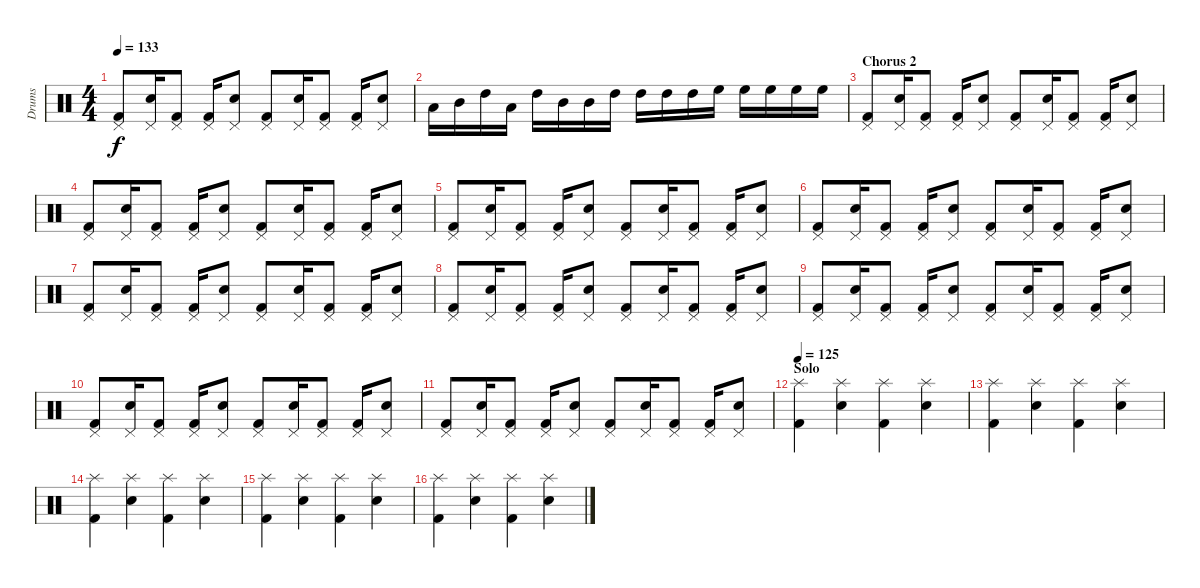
\track ("Drums" "Drums") {instrument percussion}
\staff {score}
\articulation defaults
\ts (4 4)
\tempo 133
\clef neutral
\ks c
("Pedal Hi-Hat (hit)" "Kick (hit) 2").8{dy f} ("Pedal Hi-Hat (hit)" "Electric Snare (hit)").16 ("Pedal Hi-Hat (hit)" "Kick (hit) 2").8 ("Pedal Hi-Hat (hit)" "Kick (hit) 2").16 ("Pedal Hi-Hat (hit)" "Electric Snare (hit)").8 ("Pedal Hi-Hat (hit)" "Kick (hit) 2").8 ("Pedal Hi-Hat (hit)" "Electric Snare (hit)").16 ("Pedal Hi-Hat (hit)" "Kick (hit) 2").8 ("Pedal Hi-Hat (hit)" "Kick (hit) 2").16 ("Pedal Hi-Hat (hit)" "Electric Snare (hit)").8 |
"Low Tom (hit)".16 "Mid Tom (hit)".16 "High Tom (hit)".16 "Low Tom (hit)".16 "High Tom (hit)".16 "Mid Tom (hit)".16 "Mid Tom (hit)".16 "High Tom (hit)".16 "High Tom (hit)".16 "High Tom (hit)".16 "High Tom (hit)".16 "High Floor Tom (hit)".16 "High Floor Tom (hit)".16 "High Floor Tom (hit)".16 "High Floor Tom (hit)".16 "High Floor Tom (hit)".16 |
\section ("" "Chorus 2 ")
("Pedal Hi-Hat (hit)" "Kick (hit) 2").8 ("Pedal Hi-Hat (hit)" "Electric Snare (hit)").16 ("Pedal Hi-Hat (hit)" "Kick (hit) 2").8 ("Pedal Hi-Hat (hit)" "Kick (hit) 2").16 ("Pedal Hi-Hat (hit)" "Electric Snare (hit)").8 ("Pedal Hi-Hat (hit)" "Kick (hit) 2").8 ("Pedal Hi-Hat (hit)" "Electric Snare (hit)").16 ("Pedal Hi-Hat (hit)" "Kick (hit) 2").8 ("Pedal Hi-Hat (hit)" "Kick (hit) 2").16 ("Pedal Hi-Hat (hit)" "Electric Snare (hit)").8 |
("Pedal Hi-Hat (hit)" "Kick (hit) 2").8 ("Pedal Hi-Hat (hit)" "Electric Snare (hit)").16 ("Pedal Hi-Hat (hit)" "Kick (hit) 2").8 ("Pedal Hi-Hat (hit)" "Kick (hit) 2").16 ("Pedal Hi-Hat (hit)" "Electric Snare (hit)").8 ("Pedal Hi-Hat (hit)" "Kick (hit) 2").8 ("Pedal Hi-Hat (hit)" "Electric Snare (hit)").16 ("Pedal Hi-Hat (hit)" "Kick (hit) 2").8 ("Pedal Hi-Hat (hit)" "Kick (hit) 2").16 ("Pedal Hi-Hat (hit)" "Electric Snare (hit)").8 |
("Pedal Hi-Hat (hit)" "Kick (hit) 2").8 ("Pedal Hi-Hat (hit)" "Electric Snare (hit)").16 ("Pedal Hi-Hat (hit)" "Kick (hit) 2").8 ("Pedal Hi-Hat (hit)" "Kick (hit) 2").16 ("Pedal Hi-Hat (hit)" "Electric Snare (hit)").8 ("Pedal Hi-Hat (hit)" "Kick (hit) 2").8 ("Pedal Hi-Hat (hit)" "Electric Snare (hit)").16 ("Pedal Hi-Hat (hit)" "Kick (hit) 2").8 ("Pedal Hi-Hat (hit)" "Kick (hit) 2").16 ("Pedal Hi-Hat (hit)" "Electric Snare (hit)").8 |
("Pedal Hi-Hat (hit)" "Kick (hit) 2").8 ("Pedal Hi-Hat (hit)" "Electric Snare (hit)").16 ("Pedal Hi-Hat (hit)" "Kick (hit) 2").8 ("Pedal Hi-Hat (hit)" "Kick (hit) 2").16 ("Pedal Hi-Hat (hit)" "Electric Snare (hit)").8 ("Pedal Hi-Hat (hit)" "Kick (hit) 2").8 ("Pedal Hi-Hat (hit)" "Electric Snare (hit)").16 ("Pedal Hi-Hat (hit)" "Kick (hit) 2").8 ("Pedal Hi-Hat (hit)" "Kick (hit) 2").16 ("Pedal Hi-Hat (hit)" "Electric Snare (hit)").8 |
("Pedal Hi-Hat (hit)" "Kick (hit) 2").8 ("Pedal Hi-Hat (hit)" "Electric Snare (hit)").16 ("Pedal Hi-Hat (hit)" "Kick (hit) 2").8 ("Pedal Hi-Hat (hit)" "Kick (hit) 2").16 ("Pedal Hi-Hat (hit)" "Electric Snare (hit)").8 ("Pedal Hi-Hat (hit)" "Kick (hit) 2").8 ("Pedal Hi-Hat (hit)" "Electric Snare (hit)").16 ("Pedal Hi-Hat (hit)" "Kick (hit) 2").8 ("Pedal Hi-Hat (hit)" "Kick (hit) 2").16 ("Pedal Hi-Hat (hit)" "Electric Snare (hit)").8 |
("Pedal Hi-Hat (hit)" "Kick (hit) 2").8 ("Pedal Hi-Hat (hit)" "Electric Snare (hit)").16 ("Pedal Hi-Hat (hit)" "Kick (hit) 2").8 ("Pedal Hi-Hat (hit)" "Kick (hit) 2").16 ("Pedal Hi-Hat (hit)" "Electric Snare (hit)").8 ("Pedal Hi-Hat (hit)" "Kick (hit) 2").8 ("Pedal Hi-Hat (hit)" "Electric Snare (hit)").16 ("Pedal Hi-Hat (hit)" "Kick (hit) 2").8 ("Pedal Hi-Hat (hit)" "Kick (hit) 2").16 ("Pedal Hi-Hat (hit)" "Electric Snare (hit)").8 |
("Pedal Hi-Hat (hit)" "Kick (hit) 2").8 ("Pedal Hi-Hat (hit)" "Electric Snare (hit)").16 ("Pedal Hi-Hat (hit)" "Kick (hit) 2").8 ("Pedal Hi-Hat (hit)" "Kick (hit) 2").16 ("Pedal Hi-Hat (hit)" "Electric Snare (hit)").8 ("Pedal Hi-Hat (hit)" "Kick (hit) 2").8 ("Pedal Hi-Hat (hit)" "Electric Snare (hit)").16 ("Pedal Hi-Hat (hit)" "Kick (hit) 2").8 ("Pedal Hi-Hat (hit)" "Kick (hit) 2").16 ("Pedal Hi-Hat (hit)" "Electric Snare (hit)").8 |
("Pedal Hi-Hat (hit)" "Kick (hit) 2").8 ("Pedal Hi-Hat (hit)" "Electric Snare (hit)").16 ("Pedal Hi-Hat (hit)" "Kick (hit) 2").8 ("Pedal Hi-Hat (hit)" "Kick (hit) 2").16 ("Pedal Hi-Hat (hit)" "Electric Snare (hit)").8 ("Pedal Hi-Hat (hit)" "Kick (hit) 2").8 ("Pedal Hi-Hat (hit)" "Electric Snare (hit)").16 ("Pedal Hi-Hat (hit)" "Kick (hit) 2").8 ("Pedal Hi-Hat (hit)" "Kick (hit) 2").16 ("Pedal Hi-Hat (hit)" "Electric Snare (hit)").8 |
("Pedal Hi-Hat (hit)" "Kick (hit) 2").8 ("Pedal Hi-Hat (hit)" "Electric Snare (hit)").16 ("Pedal Hi-Hat (hit)" "Kick (hit) 2").8 ("Pedal Hi-Hat (hit)" "Kick (hit) 2").16 ("Pedal Hi-Hat (hit)" "Electric Snare (hit)").8 ("Pedal Hi-Hat (hit)" "Kick (hit) 2").8 ("Pedal Hi-Hat (hit)" "Electric Snare (hit)").16 ("Pedal Hi-Hat (hit)" "Kick (hit) 2").8 ("Pedal Hi-Hat (hit)" "Kick (hit) 2").16 ("Pedal Hi-Hat (hit)" "Electric Snare (hit)").8 |
\section ("" "Solo")
\tempo 125
("Splash (hit)" "Kick (hit) 2").4 ("Splash (hit)" "Electric Snare (hit)").4 ("Splash (hit)" "Kick (hit) 2").4 ("Splash (hit)" "Electric Snare (hit)").4 |
("Splash (hit)" "Kick (hit) 2").4 ("Splash (hit)" "Electric Snare (hit)").4 ("Splash (hit)" "Kick (hit) 2").4 ("Splash (hit)" "Electric Snare (hit)").4 |
("Splash (hit)" "Kick (hit) 2").4 ("Splash (hit)" "Electric Snare (hit)").4 ("Splash (hit)" "Kick (hit) 2").4 ("Splash (hit)" "Electric Snare (hit)").4 |
("Splash (hit)" "Kick (hit) 2").4 ("Splash (hit)" "Electric Snare (hit)").4 ("Splash (hit)" "Kick (hit) 2").4 ("Splash (hit)" "Electric Snare (hit)").4 |
("Splash (hit)" "Kick (hit) 2").4 ("Splash (hit)" "Electric Snare (hit)").4 ("Splash (hit)" "Kick (hit) 2").4 ("Splash (hit)" "Electric Snare (hit)").4
